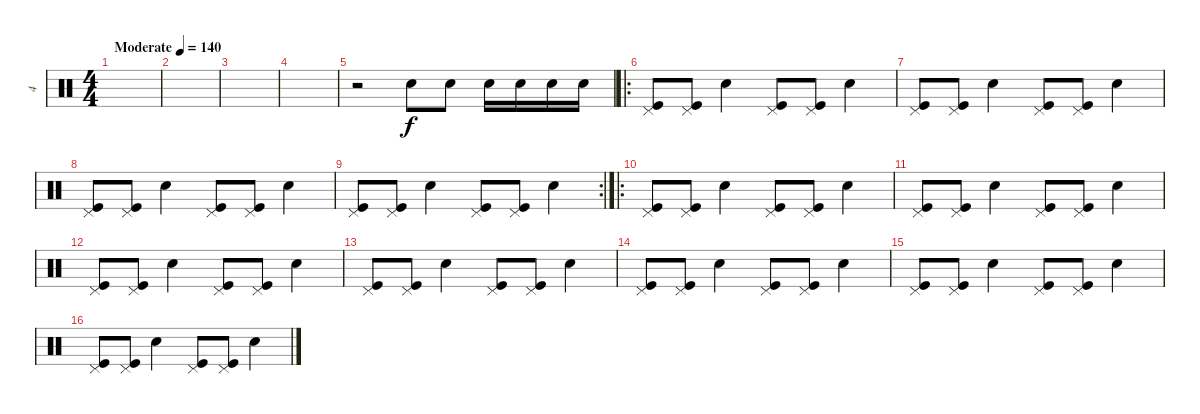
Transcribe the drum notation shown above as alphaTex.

\track ("4" "4") {instrument percussion}
\staff {score}
\articulation defaults
\ts (4 4)
\tempo (140 "Moderate")
\clef neutral
\ks c
|
|
|
|
r.2 "Snare (hit) 2".8 "Snare (hit) 2".8 "Snare (hit) 2".16 "Snare (hit) 2".16 "Snare (hit) 2".16 "Snare (hit) 2".16 |
\ro
("Pedal Hi-Hat (hit)" "Kick (hit)").8 ("Pedal Hi-Hat (hit)" "Kick (hit)").8 "Snare (hit) 2".4 ("Pedal Hi-Hat (hit)" "Kick (hit)").8 ("Pedal Hi-Hat (hit)" "Kick (hit)").8 "Snare (hit) 2".4 |
("Pedal Hi-Hat (hit)" "Kick (hit)").8 ("Pedal Hi-Hat (hit)" "Kick (hit)").8 "Snare (hit) 2".4 ("Pedal Hi-Hat (hit)" "Kick (hit)").8 ("Pedal Hi-Hat (hit)" "Kick (hit)").8 "Snare (hit) 2".4 |
("Pedal Hi-Hat (hit)" "Kick (hit)").8 ("Pedal Hi-Hat (hit)" "Kick (hit)").8 "Snare (hit) 2".4 ("Pedal Hi-Hat (hit)" "Kick (hit)").8 ("Pedal Hi-Hat (hit)" "Kick (hit)").8 "Snare (hit) 2".4 |
\rc 2
("Pedal Hi-Hat (hit)" "Kick (hit)").8 ("Pedal Hi-Hat (hit)" "Kick (hit)").8 "Snare (hit) 2".4 ("Pedal Hi-Hat (hit)" "Kick (hit)").8 ("Pedal Hi-Hat (hit)" "Kick (hit)").8 "Snare (hit) 2".4 |
\ro
("Pedal Hi-Hat (hit)" "Kick (hit)").8 ("Pedal Hi-Hat (hit)" "Kick (hit)").8 "Snare (hit) 2".4 ("Pedal Hi-Hat (hit)" "Kick (hit)").8 ("Pedal Hi-Hat (hit)" "Kick (hit)").8 "Snare (hit) 2".4 |
("Pedal Hi-Hat (hit)" "Kick (hit)").8 ("Pedal Hi-Hat (hit)" "Kick (hit)").8 "Snare (hit) 2".4 ("Pedal Hi-Hat (hit)" "Kick (hit)").8 ("Pedal Hi-Hat (hit)" "Kick (hit)").8 "Snare (hit) 2".4 |
("Pedal Hi-Hat (hit)" "Kick (hit)").8 ("Pedal Hi-Hat (hit)" "Kick (hit)").8 "Snare (hit) 2".4 ("Pedal Hi-Hat (hit)" "Kick (hit)").8 ("Pedal Hi-Hat (hit)" "Kick (hit)").8 "Snare (hit) 2".4 |
("Pedal Hi-Hat (hit)" "Kick (hit)").8 ("Pedal Hi-Hat (hit)" "Kick (hit)").8 "Snare (hit) 2".4 ("Pedal Hi-Hat (hit)" "Kick (hit)").8 ("Pedal Hi-Hat (hit)" "Kick (hit)").8 "Snare (hit) 2".4 |
("Pedal Hi-Hat (hit)" "Kick (hit)").8 ("Pedal Hi-Hat (hit)" "Kick (hit)").8 "Snare (hit) 2".4 ("Pedal Hi-Hat (hit)" "Kick (hit)").8 ("Pedal Hi-Hat (hit)" "Kick (hit)").8 "Snare (hit) 2".4 |
("Pedal Hi-Hat (hit)" "Kick (hit)").8 ("Pedal Hi-Hat (hit)" "Kick (hit)").8 "Snare (hit) 2".4 ("Pedal Hi-Hat (hit)" "Kick (hit)").8 ("Pedal Hi-Hat (hit)" "Kick (hit)").8 "Snare (hit) 2".4 |
("Pedal Hi-Hat (hit)" "Kick (hit)").8 ("Pedal Hi-Hat (hit)" "Kick (hit)").8 "Snare (hit) 2".4 ("Pedal Hi-Hat (hit)" "Kick (hit)").8 ("Pedal Hi-Hat (hit)" "Kick (hit)").8 "Snare (hit) 2".4
